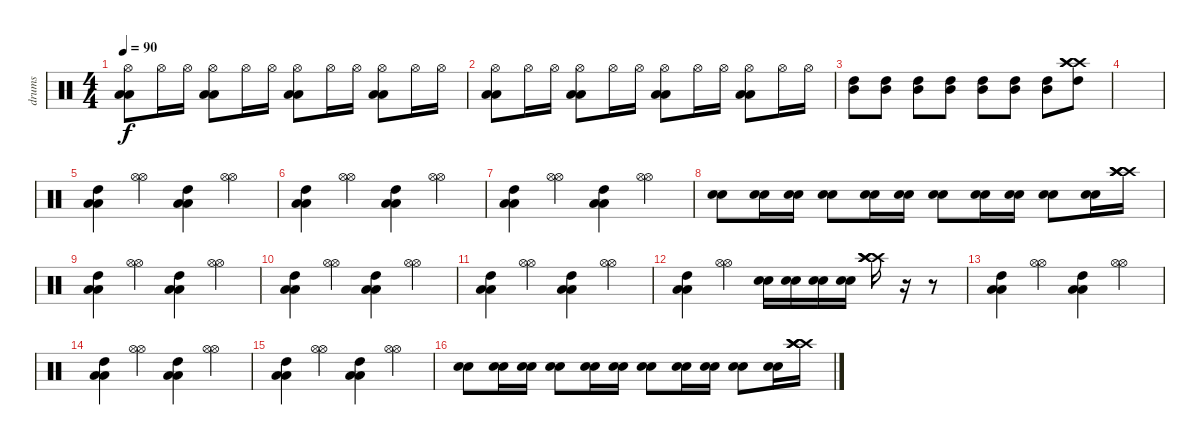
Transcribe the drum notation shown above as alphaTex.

\track ("drums" "drums") {instrument percussion}
\staff {score}
\articulation defaults
\ts (4 4)
\tempo 90
\clef neutral
\ks c
("Hi-Hat (open)" "Low Floor Tom (hit)" "Low Floor Tom (hit)").8{dy f} "Hi-Hat (open)".16 "Hi-Hat (open)".16 ("Hi-Hat (open)" "Low Floor Tom (hit)" "Low Floor Tom (hit)").8 "Hi-Hat (open)".16 "Hi-Hat (open)".16 ("Hi-Hat (open)" "Low Floor Tom (hit)" "Low Floor Tom (hit)").8 "Hi-Hat (open)".16 "Hi-Hat (open)".16 ("Hi-Hat (open)" "Low Floor Tom (hit)" "Low Floor Tom (hit)").8 "Hi-Hat (open)".16 "Hi-Hat (open)".16 |
("Hi-Hat (open)" "Low Floor Tom (hit)" "Low Floor Tom (hit)").8 "Hi-Hat (open)".16 "Hi-Hat (open)".16 ("Hi-Hat (open)" "Low Floor Tom (hit)" "Low Floor Tom (hit)").8 "Hi-Hat (open)".16 "Hi-Hat (open)".16 ("Hi-Hat (open)" "Low Floor Tom (hit)" "Low Floor Tom (hit)").8 "Hi-Hat (open)".16 "Hi-Hat (open)".16 ("Hi-Hat (open)" "Low Floor Tom (hit)" "Low Floor Tom (hit)").8 "Hi-Hat (open)".16 "Hi-Hat (open)".16 |
("Mid Tom (hit)" "High Tom (hit)").8 ("Mid Tom (hit)" "High Tom (hit)").8 ("Mid Tom (hit)" "High Tom (hit)").8 ("Mid Tom (hit)" "High Tom (hit)").8 ("Mid Tom (hit)" "High Tom (hit)").8 ("Mid Tom (hit)" "High Tom (hit)").8 ("Mid Tom (hit)" "High Tom (hit)").8 ("High Tom (hit)" "Crash high (hit)" "Crash high (hit)" "Crash high (hit)").8 |
|
("High Tom (hit)" "Low Floor Tom (hit)" "Low Floor Tom (hit)").4 ("Hi-Hat (open)" "Hi-Hat (open)").4 ("High Tom (hit)" "Low Floor Tom (hit)" "Low Floor Tom (hit)").4 ("Hi-Hat (open)" "Hi-Hat (open)").4 |
("High Tom (hit)" "Low Floor Tom (hit)" "Low Floor Tom (hit)").4 ("Hi-Hat (open)" "Hi-Hat (open)").4 ("High Tom (hit)" "Low Floor Tom (hit)" "Low Floor Tom (hit)").4 ("Hi-Hat (open)" "Hi-Hat (open)").4 |
("High Tom (hit)" "Low Floor Tom (hit)" "Low Floor Tom (hit)").4 ("Hi-Hat (open)" "Hi-Hat (open)").4 ("High Tom (hit)" "Low Floor Tom (hit)" "Low Floor Tom (hit)").4 ("Hi-Hat (open)" "Hi-Hat (open)").4 |
("Electric Snare (hit)" "Electric Snare (hit)").8 ("Electric Snare (hit)" "Electric Snare (hit)").16 ("Electric Snare (hit)" "Electric Snare (hit)").16 ("Electric Snare (hit)" "Electric Snare (hit)").8 ("Electric Snare (hit)" "Electric Snare (hit)").16 ("Electric Snare (hit)" "Electric Snare (hit)").16 ("Electric Snare (hit)" "Electric Snare (hit)").8 ("Electric Snare (hit)" "Electric Snare (hit)").16 ("Electric Snare (hit)" "Electric Snare (hit)").16 ("Electric Snare (hit)" "Electric Snare (hit)").8 ("Electric Snare (hit)" "Electric Snare (hit)").16 ("Crash high (hit)" "Crash high (hit)" "Crash high (hit)" "Crash high (hit)").16 |
("High Tom (hit)" "Low Floor Tom (hit)" "Low Floor Tom (hit)").4 ("Hi-Hat (open)" "Hi-Hat (open)").4 ("High Tom (hit)" "Low Floor Tom (hit)" "Low Floor Tom (hit)").4 ("Hi-Hat (open)" "Hi-Hat (open)").4 |
("High Tom (hit)" "Low Floor Tom (hit)" "Low Floor Tom (hit)").4 ("Hi-Hat (open)" "Hi-Hat (open)").4 ("High Tom (hit)" "Low Floor Tom (hit)" "Low Floor Tom (hit)").4 ("Hi-Hat (open)" "Hi-Hat (open)").4 |
("High Tom (hit)" "Low Floor Tom (hit)" "Low Floor Tom (hit)").4 ("Hi-Hat (open)" "Hi-Hat (open)").4 ("High Tom (hit)" "Low Floor Tom (hit)" "Low Floor Tom (hit)").4 ("Hi-Hat (open)" "Hi-Hat (open)").4 |
("High Tom (hit)" "Low Floor Tom (hit)" "Low Floor Tom (hit)").4 ("Hi-Hat (open)" "Hi-Hat (open)").4 ("Electric Snare (hit)" "Electric Snare (hit)").16 ("Electric Snare (hit)" "Electric Snare (hit)").16 ("Electric Snare (hit)" "Electric Snare (hit)").16 ("Electric Snare (hit)" "Electric Snare (hit)").16 ("Crash high (hit)" "Crash high (hit)" "Crash high (hit)" "Crash high (hit)").16 r.16 r.8 |
("High Tom (hit)" "Low Floor Tom (hit)" "Low Floor Tom (hit)").4 ("Hi-Hat (open)" "Hi-Hat (open)").4 ("High Tom (hit)" "Low Floor Tom (hit)" "Low Floor Tom (hit)").4 ("Hi-Hat (open)" "Hi-Hat (open)").4 |
("High Tom (hit)" "Low Floor Tom (hit)" "Low Floor Tom (hit)").4 ("Hi-Hat (open)" "Hi-Hat (open)").4 ("High Tom (hit)" "Low Floor Tom (hit)" "Low Floor Tom (hit)").4 ("Hi-Hat (open)" "Hi-Hat (open)").4 |
("High Tom (hit)" "Low Floor Tom (hit)" "Low Floor Tom (hit)").4 ("Hi-Hat (open)" "Hi-Hat (open)").4 ("High Tom (hit)" "Low Floor Tom (hit)" "Low Floor Tom (hit)").4 ("Hi-Hat (open)" "Hi-Hat (open)").4 |
("Electric Snare (hit)" "Electric Snare (hit)").8 ("Electric Snare (hit)" "Electric Snare (hit)").16 ("Electric Snare (hit)" "Electric Snare (hit)").16 ("Electric Snare (hit)" "Electric Snare (hit)").8 ("Electric Snare (hit)" "Electric Snare (hit)").16 ("Electric Snare (hit)" "Electric Snare (hit)").16 ("Electric Snare (hit)" "Electric Snare (hit)").8 ("Electric Snare (hit)" "Electric Snare (hit)").16 ("Electric Snare (hit)" "Electric Snare (hit)").16 ("Electric Snare (hit)" "Electric Snare (hit)").8 ("Electric Snare (hit)" "Electric Snare (hit)").16 ("Crash high (hit)" "Crash high (hit)" "Crash high (hit)" "Crash high (hit)").16
